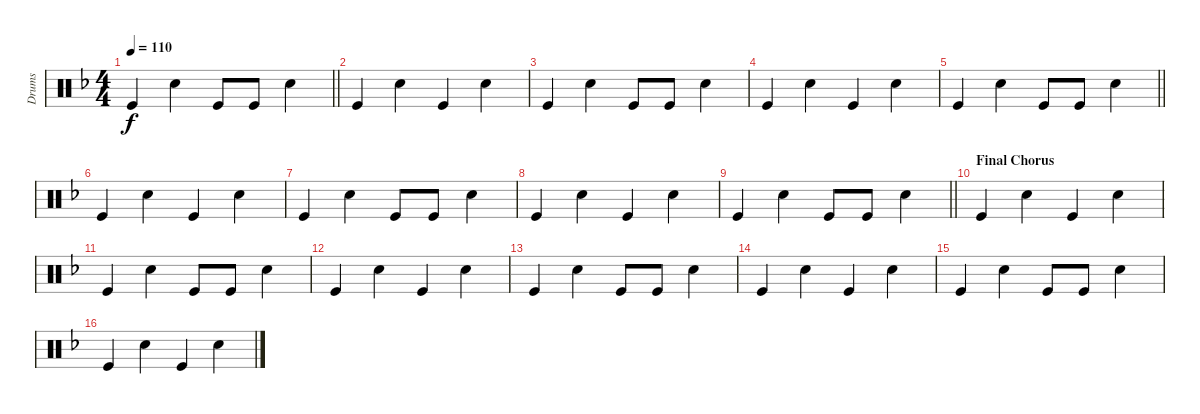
\track ("Drums" "Drums") {instrument percussion}
\staff {score}
\articulation defaults
\ts (4 4)
\tempo 110
\clef neutral
\barLineRight lightlight
\ks dminor "Kick (hit)".4{dy f} "Snare (hit) 2".4 "Kick (hit)".8 "Kick (hit)".8 "Snare (hit) 2".4
|
"Kick (hit)".4 "Snare (hit) 2".4 "Kick (hit)".4 "Snare (hit) 2".4 |
"Kick (hit)".4 "Snare (hit) 2".4 "Kick (hit)".8 "Kick (hit)".8 "Snare (hit) 2".4 |
"Kick (hit)".4 "Snare (hit) 2".4 "Kick (hit)".4 "Snare (hit) 2".4 |
\barLineRight lightlight "Kick (hit)".4 "Snare (hit) 2".4 "Kick (hit)".8 "Kick (hit)".8 "Snare (hit) 2".4
|
"Kick (hit)".4 "Snare (hit) 2".4 "Kick (hit)".4 "Snare (hit) 2".4 |
"Kick (hit)".4 "Snare (hit) 2".4 "Kick (hit)".8 "Kick (hit)".8 "Snare (hit) 2".4 |
"Kick (hit)".4 "Snare (hit) 2".4 "Kick (hit)".4 "Snare (hit) 2".4 |
\barLineRight lightlight "Kick (hit)".4 "Snare (hit) 2".4 "Kick (hit)".8 "Kick (hit)".8 "Snare (hit) 2".4
|
\section ("" "Final Chorus")
"Kick (hit)".4 "Snare (hit) 2".4 "Kick (hit)".4 "Snare (hit) 2".4 |
"Kick (hit)".4 "Snare (hit) 2".4 "Kick (hit)".8 "Kick (hit)".8 "Snare (hit) 2".4 |
"Kick (hit)".4 "Snare (hit) 2".4 "Kick (hit)".4 "Snare (hit) 2".4 |
"Kick (hit)".4 "Snare (hit) 2".4 "Kick (hit)".8 "Kick (hit)".8 "Snare (hit) 2".4 |
"Kick (hit)".4 "Snare (hit) 2".4 "Kick (hit)".4 "Snare (hit) 2".4 |
"Kick (hit)".4 "Snare (hit) 2".4 "Kick (hit)".8 "Kick (hit)".8 "Snare (hit) 2".4 |
"Kick (hit)".4 "Snare (hit) 2".4 "Kick (hit)".4 "Snare (hit) 2".4
